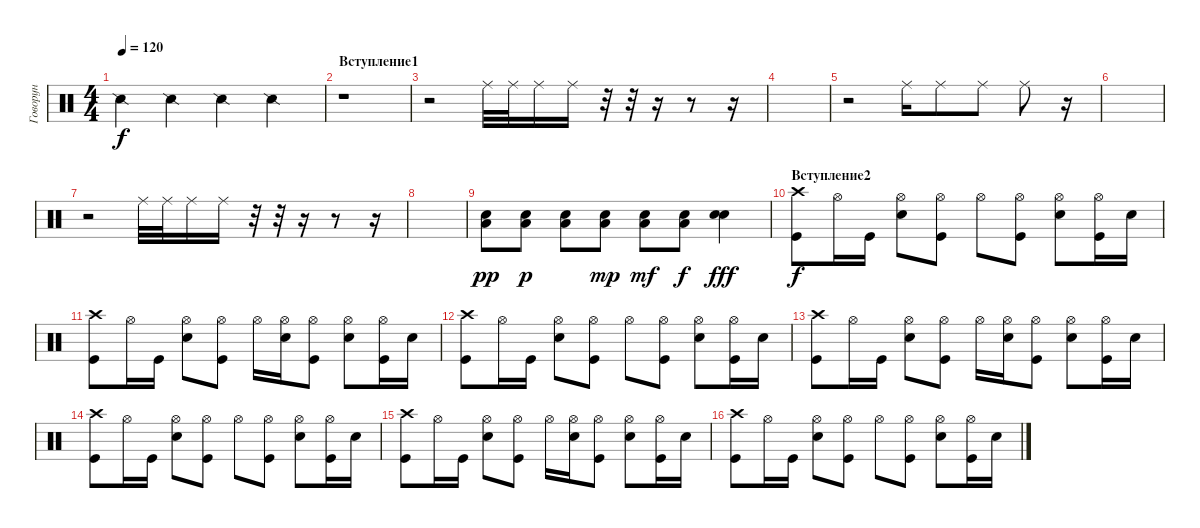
\track ("Говорун" "Говорун") {instrument percussion}
\staff {score}
\articulation defaults
\ts (4 4)
\tempo 120
\clef neutral
\ks c "Snare (side stick) 2".4{dy f} "Snare (side stick) 2".4 "Snare (side stick) 2".4 "Snare (side stick) 2".4
|
\section ("" "Вступление1")
r.1 |
r.2 "Ride (middle)".32 "Ride (middle)".32 "Ride (middle)".16 "Ride (middle)".16 r.32 r.32 r.16 r.8 r.16 |
|
r.2 "Ride (middle)".16 "Ride (middle)".8 "Ride (middle)".8 "Ride (middle)".8 r.16 |
|
r.2 "Ride (middle)".32 "Ride (middle)".32 "Ride (middle)".16 "Ride (middle)".16 r.32 r.32 r.16 r.8 r.16 |
|
("Snare (hit) 2" "Low Tom (hit)").8{dy pp} ("Snare (hit) 2" "Low Tom (hit)").8{dy p} ("Snare (hit) 2" "Low Tom (hit)").8 ("Snare (hit) 2" "Low Tom (hit)").8{dy mp} ("Snare (hit) 2" "Low Tom (hit)").8{dy mf} ("Snare (hit) 2" "Low Tom (hit)").8{dy f} ("Snare (hit) 2" "Snare (hit) 2").4{dy fff} |
\section ("" "Вступление2")
("Crash high (hit)" "Kick (hit)").8{dy f} "Hi-Hat (open)".16 "Kick (hit)".16 ("Hi-Hat (open)" "Snare (hit) 2").8 ("Hi-Hat (open)" "Kick (hit)").8 "Hi-Hat (open)".8 ("Hi-Hat (open)" "Kick (hit)").8 ("Hi-Hat (open)" "Snare (hit) 2").8 ("Hi-Hat (open)" "Kick (hit)").16 "Snare (hit) 2".16 |
("Crash high (hit)" "Kick (hit)").8 "Hi-Hat (open)".16 "Kick (hit)".16 ("Hi-Hat (open)" "Snare (hit) 2").8 ("Hi-Hat (open)" "Kick (hit)").8 "Hi-Hat (open)".16 ("Hi-Hat (open)" "Snare (hit) 2").16 ("Hi-Hat (open)" "Kick (hit)").8 ("Hi-Hat (open)" "Snare (hit) 2").8 ("Hi-Hat (open)" "Kick (hit)").16 "Snare (hit) 2".16 |
("Crash high (hit)" "Kick (hit)").8 "Hi-Hat (open)".16 "Kick (hit)".16 ("Hi-Hat (open)" "Snare (hit) 2").8 ("Hi-Hat (open)" "Kick (hit)").8 "Hi-Hat (open)".8 ("Hi-Hat (open)" "Kick (hit)").8 ("Hi-Hat (open)" "Snare (hit) 2").8 ("Hi-Hat (open)" "Kick (hit)").16 "Snare (hit) 2".16 |
("Crash high (hit)" "Kick (hit)").8 "Hi-Hat (open)".16 "Kick (hit)".16 ("Hi-Hat (open)" "Snare (hit) 2").8 ("Hi-Hat (open)" "Kick (hit)").8 "Hi-Hat (open)".16 ("Hi-Hat (open)" "Snare (hit) 2").16 ("Hi-Hat (open)" "Kick (hit)").8 ("Hi-Hat (open)" "Snare (hit) 2").8 ("Hi-Hat (open)" "Kick (hit)").16 "Snare (hit) 2".16 |
("Crash high (hit)" "Kick (hit)").8 "Hi-Hat (open)".16 "Kick (hit)".16 ("Hi-Hat (open)" "Snare (hit) 2").8 ("Hi-Hat (open)" "Kick (hit)").8 "Hi-Hat (open)".8 ("Hi-Hat (open)" "Kick (hit)").8 ("Hi-Hat (open)" "Snare (hit) 2").8 ("Hi-Hat (open)" "Kick (hit)").16 "Snare (hit) 2".16 |
("Crash high (hit)" "Kick (hit)").8 "Hi-Hat (open)".16 "Kick (hit)".16 ("Hi-Hat (open)" "Snare (hit) 2").8 ("Hi-Hat (open)" "Kick (hit)").8 "Hi-Hat (open)".16 ("Hi-Hat (open)" "Snare (hit) 2").16 ("Hi-Hat (open)" "Kick (hit)").8 ("Hi-Hat (open)" "Snare (hit) 2").8 ("Hi-Hat (open)" "Kick (hit)").16 "Snare (hit) 2".16 |
("Crash high (hit)" "Kick (hit)").8 "Hi-Hat (open)".16 "Kick (hit)".16 ("Hi-Hat (open)" "Snare (hit) 2").8 ("Hi-Hat (open)" "Kick (hit)").8 "Hi-Hat (open)".8 ("Hi-Hat (open)" "Kick (hit)").8 ("Hi-Hat (open)" "Snare (hit) 2").8 ("Hi-Hat (open)" "Kick (hit)").16 "Snare (hit) 2".16
